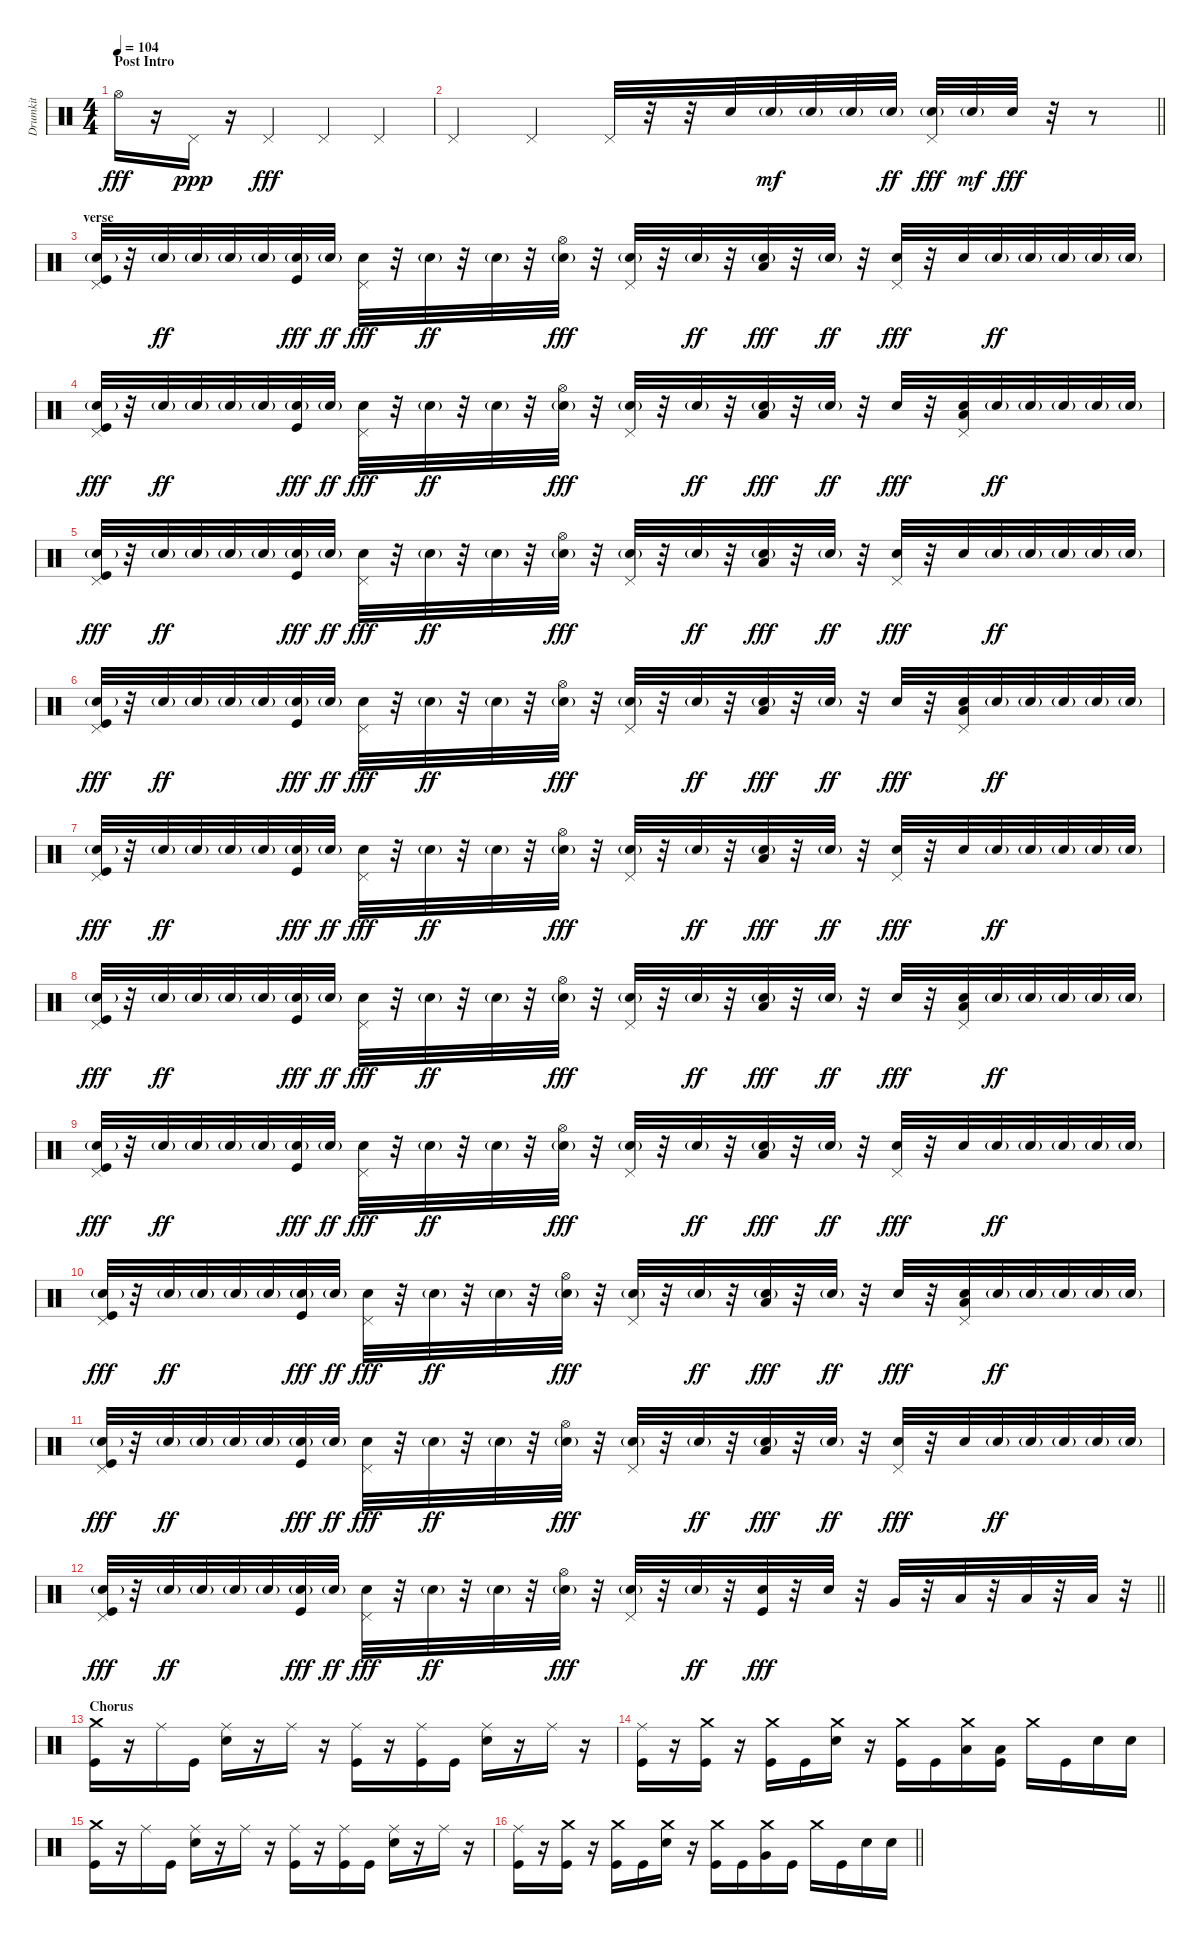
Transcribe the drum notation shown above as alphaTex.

\track ("Drumkit" "Drumkit") {instrument percussion}
\staff {score}
\articulation defaults
\ts (4 4)
\section ("" "Post Intro")
\tempo 104
\clef neutral
\ks c "Hi-Hat (open)".16{dy fff}
r.16 "Pedal Hi-Hat (hit)".16{dy ppp} r.16 "Pedal Hi-Hat (hit)".4{dy fff} "Pedal Hi-Hat (hit)".4 "Pedal Hi-Hat (hit)".4 |
\barLineRight lightlight "Pedal Hi-Hat (hit)".4 "Pedal Hi-Hat (hit)".4 "Pedal Hi-Hat (hit)".32
r.32 r.32 "Snare (hit) 2".32 "Snare (hit) 2"{g}.32{dy mf} "Snare (hit) 2"{g}.32 "Snare (hit) 2"{g}.32 "Snare (hit) 2"{g}.32{dy ff} ("Pedal Hi-Hat (hit)" "Snare (hit) 2"{g}).32{dy fff} "Snare (hit) 2"{g}.32{dy mf} "Snare (hit) 2".32{dy fff} r.32 r.8 |
\section ("" "verse")
("Pedal Hi-Hat (hit)" "Snare (hit) 2"{g} "Kick (hit)").32 r.32 "Snare (hit) 2"{g}.32{dy ff} "Snare (hit) 2"{g}.32 "Snare (hit) 2"{g}.32 "Snare (hit) 2"{g}.32 ("Snare (hit) 2"{g} "Kick (hit)").32{dy fff} "Snare (hit) 2"{g}.32{dy ff} ("Pedal Hi-Hat (hit)" "Snare (hit) 2").32{dy fff} r.32 "Snare (hit) 2"{g}.32{dy ff} r.32 "Snare (hit) 2"{g}.32 r.32 ("Hi-Hat (open)" "Snare (hit) 2"{g}).32{dy fff} r.32 ("Pedal Hi-Hat (hit)" "Snare (hit) 2"{g}).32 r.32 "Snare (hit) 2"{g}.32{dy ff} r.32 ("Low Tom (hit)" "Snare (hit) 2"{g}).32{dy fff} r.32 "Snare (hit) 2"{g}.32{dy ff} r.32 ("Pedal Hi-Hat (hit)" "Snare (hit) 2").32{dy fff} r.32 "Snare (hit) 2".32 "Snare (hit) 2"{g}.32{dy ff} "Snare (hit) 2"{g}.32 "Snare (hit) 2"{g}.32 "Snare (hit) 2"{g}.32 "Snare (hit) 2"{g}.32 |
("Pedal Hi-Hat (hit)" "Snare (hit) 2"{g} "Kick (hit)").32{dy fff} r.32 "Snare (hit) 2"{g}.32{dy ff} "Snare (hit) 2"{g}.32 "Snare (hit) 2"{g}.32 "Snare (hit) 2"{g}.32 ("Snare (hit) 2"{g} "Kick (hit)").32{dy fff} "Snare (hit) 2"{g}.32{dy ff} ("Pedal Hi-Hat (hit)" "Snare (hit) 2").32{dy fff} r.32 "Snare (hit) 2"{g}.32{dy ff} r.32 "Snare (hit) 2"{g}.32 r.32 ("Hi-Hat (open)" "Snare (hit) 2"{g}).32{dy fff} r.32 ("Pedal Hi-Hat (hit)" "Snare (hit) 2"{g}).32 r.32 "Snare (hit) 2"{g}.32{dy ff} r.32 ("Low Tom (hit)" "Snare (hit) 2"{g}).32{dy fff} r.32 "Snare (hit) 2"{g}.32{dy ff} r.32 "Snare (hit) 2".32{dy fff} r.32 ("Pedal Hi-Hat (hit)" "Low Floor Tom (hit)" "Snare (hit) 2").32 "Snare (hit) 2"{g}.32{dy ff} "Snare (hit) 2"{g}.32 "Snare (hit) 2"{g}.32 "Snare (hit) 2"{g}.32 "Snare (hit) 2"{g}.32 |
("Pedal Hi-Hat (hit)" "Snare (hit) 2"{g} "Kick (hit)").32{dy fff} r.32 "Snare (hit) 2"{g}.32{dy ff} "Snare (hit) 2"{g}.32 "Snare (hit) 2"{g}.32 "Snare (hit) 2"{g}.32 ("Snare (hit) 2"{g} "Kick (hit)").32{dy fff} "Snare (hit) 2"{g}.32{dy ff} ("Pedal Hi-Hat (hit)" "Snare (hit) 2").32{dy fff} r.32 "Snare (hit) 2"{g}.32{dy ff} r.32 "Snare (hit) 2"{g}.32 r.32 ("Hi-Hat (open)" "Snare (hit) 2"{g}).32{dy fff} r.32 ("Pedal Hi-Hat (hit)" "Snare (hit) 2"{g}).32 r.32 "Snare (hit) 2"{g}.32{dy ff} r.32 ("Low Tom (hit)" "Snare (hit) 2"{g}).32{dy fff} r.32 "Snare (hit) 2"{g}.32{dy ff} r.32 ("Pedal Hi-Hat (hit)" "Snare (hit) 2").32{dy fff} r.32 "Snare (hit) 2".32 "Snare (hit) 2"{g}.32{dy ff} "Snare (hit) 2"{g}.32 "Snare (hit) 2"{g}.32 "Snare (hit) 2"{g}.32 "Snare (hit) 2"{g}.32 |
("Pedal Hi-Hat (hit)" "Snare (hit) 2"{g} "Kick (hit)").32{dy fff} r.32 "Snare (hit) 2"{g}.32{dy ff} "Snare (hit) 2"{g}.32 "Snare (hit) 2"{g}.32 "Snare (hit) 2"{g}.32 ("Snare (hit) 2"{g} "Kick (hit)").32{dy fff} "Snare (hit) 2"{g}.32{dy ff} ("Pedal Hi-Hat (hit)" "Snare (hit) 2").32{dy fff} r.32 "Snare (hit) 2"{g}.32{dy ff} r.32 "Snare (hit) 2"{g}.32 r.32 ("Hi-Hat (open)" "Snare (hit) 2"{g}).32{dy fff} r.32 ("Pedal Hi-Hat (hit)" "Snare (hit) 2"{g}).32 r.32 "Snare (hit) 2"{g}.32{dy ff} r.32 ("Low Tom (hit)" "Snare (hit) 2"{g}).32{dy fff} r.32 "Snare (hit) 2"{g}.32{dy ff} r.32 "Snare (hit) 2".32{dy fff} r.32 ("Pedal Hi-Hat (hit)" "Low Floor Tom (hit)" "Snare (hit) 2").32 "Snare (hit) 2"{g}.32{dy ff} "Snare (hit) 2"{g}.32 "Snare (hit) 2"{g}.32 "Snare (hit) 2"{g}.32 "Snare (hit) 2"{g}.32 |
("Pedal Hi-Hat (hit)" "Snare (hit) 2"{g} "Kick (hit)").32{dy fff} r.32 "Snare (hit) 2"{g}.32{dy ff} "Snare (hit) 2"{g}.32 "Snare (hit) 2"{g}.32 "Snare (hit) 2"{g}.32 ("Snare (hit) 2"{g} "Kick (hit)").32{dy fff} "Snare (hit) 2"{g}.32{dy ff} ("Pedal Hi-Hat (hit)" "Snare (hit) 2").32{dy fff} r.32 "Snare (hit) 2"{g}.32{dy ff} r.32 "Snare (hit) 2"{g}.32 r.32 ("Hi-Hat (open)" "Snare (hit) 2"{g}).32{dy fff} r.32 ("Pedal Hi-Hat (hit)" "Snare (hit) 2"{g}).32 r.32 "Snare (hit) 2"{g}.32{dy ff} r.32 ("Low Tom (hit)" "Snare (hit) 2"{g}).32{dy fff} r.32 "Snare (hit) 2"{g}.32{dy ff} r.32 ("Pedal Hi-Hat (hit)" "Snare (hit) 2").32{dy fff} r.32 "Snare (hit) 2".32 "Snare (hit) 2"{g}.32{dy ff} "Snare (hit) 2"{g}.32 "Snare (hit) 2"{g}.32 "Snare (hit) 2"{g}.32 "Snare (hit) 2"{g}.32 |
("Pedal Hi-Hat (hit)" "Snare (hit) 2"{g} "Kick (hit)").32{dy fff} r.32 "Snare (hit) 2"{g}.32{dy ff} "Snare (hit) 2"{g}.32 "Snare (hit) 2"{g}.32 "Snare (hit) 2"{g}.32 ("Snare (hit) 2"{g} "Kick (hit)").32{dy fff} "Snare (hit) 2"{g}.32{dy ff} ("Pedal Hi-Hat (hit)" "Snare (hit) 2").32{dy fff} r.32 "Snare (hit) 2"{g}.32{dy ff} r.32 "Snare (hit) 2"{g}.32 r.32 ("Hi-Hat (open)" "Snare (hit) 2"{g}).32{dy fff} r.32 ("Pedal Hi-Hat (hit)" "Snare (hit) 2"{g}).32 r.32 "Snare (hit) 2"{g}.32{dy ff} r.32 ("Low Tom (hit)" "Snare (hit) 2"{g}).32{dy fff} r.32 "Snare (hit) 2"{g}.32{dy ff} r.32 "Snare (hit) 2".32{dy fff} r.32 ("Pedal Hi-Hat (hit)" "Low Floor Tom (hit)" "Snare (hit) 2").32 "Snare (hit) 2"{g}.32{dy ff} "Snare (hit) 2"{g}.32 "Snare (hit) 2"{g}.32 "Snare (hit) 2"{g}.32 "Snare (hit) 2"{g}.32 |
("Pedal Hi-Hat (hit)" "Snare (hit) 2"{g} "Kick (hit)").32{dy fff} r.32 "Snare (hit) 2"{g}.32{dy ff} "Snare (hit) 2"{g}.32 "Snare (hit) 2"{g}.32 "Snare (hit) 2"{g}.32 ("Snare (hit) 2"{g} "Kick (hit)").32{dy fff} "Snare (hit) 2"{g}.32{dy ff} ("Pedal Hi-Hat (hit)" "Snare (hit) 2").32{dy fff} r.32 "Snare (hit) 2"{g}.32{dy ff} r.32 "Snare (hit) 2"{g}.32 r.32 ("Hi-Hat (open)" "Snare (hit) 2"{g}).32{dy fff} r.32 ("Pedal Hi-Hat (hit)" "Snare (hit) 2"{g}).32 r.32 "Snare (hit) 2"{g}.32{dy ff} r.32 ("Low Tom (hit)" "Snare (hit) 2"{g}).32{dy fff} r.32 "Snare (hit) 2"{g}.32{dy ff} r.32 ("Pedal Hi-Hat (hit)" "Snare (hit) 2").32{dy fff} r.32 "Snare (hit) 2".32 "Snare (hit) 2"{g}.32{dy ff} "Snare (hit) 2"{g}.32 "Snare (hit) 2"{g}.32 "Snare (hit) 2"{g}.32 "Snare (hit) 2"{g}.32 |
("Pedal Hi-Hat (hit)" "Snare (hit) 2"{g} "Kick (hit)").32{dy fff} r.32 "Snare (hit) 2"{g}.32{dy ff} "Snare (hit) 2"{g}.32 "Snare (hit) 2"{g}.32 "Snare (hit) 2"{g}.32 ("Snare (hit) 2"{g} "Kick (hit)").32{dy fff} "Snare (hit) 2"{g}.32{dy ff} ("Pedal Hi-Hat (hit)" "Snare (hit) 2").32{dy fff} r.32 "Snare (hit) 2"{g}.32{dy ff} r.32 "Snare (hit) 2"{g}.32 r.32 ("Hi-Hat (open)" "Snare (hit) 2"{g}).32{dy fff} r.32 ("Pedal Hi-Hat (hit)" "Snare (hit) 2"{g}).32 r.32 "Snare (hit) 2"{g}.32{dy ff} r.32 ("Low Tom (hit)" "Snare (hit) 2"{g}).32{dy fff} r.32 "Snare (hit) 2"{g}.32{dy ff} r.32 "Snare (hit) 2".32{dy fff} r.32 ("Pedal Hi-Hat (hit)" "Low Floor Tom (hit)" "Snare (hit) 2").32 "Snare (hit) 2"{g}.32{dy ff} "Snare (hit) 2"{g}.32 "Snare (hit) 2"{g}.32 "Snare (hit) 2"{g}.32 "Snare (hit) 2"{g}.32 |
("Pedal Hi-Hat (hit)" "Snare (hit) 2"{g} "Kick (hit)").32{dy fff} r.32 "Snare (hit) 2"{g}.32{dy ff} "Snare (hit) 2"{g}.32 "Snare (hit) 2"{g}.32 "Snare (hit) 2"{g}.32 ("Snare (hit) 2"{g} "Kick (hit)").32{dy fff} "Snare (hit) 2"{g}.32{dy ff} ("Pedal Hi-Hat (hit)" "Snare (hit) 2").32{dy fff} r.32 "Snare (hit) 2"{g}.32{dy ff} r.32 "Snare (hit) 2"{g}.32 r.32 ("Hi-Hat (open)" "Snare (hit) 2"{g}).32{dy fff} r.32 ("Pedal Hi-Hat (hit)" "Snare (hit) 2"{g}).32 r.32 "Snare (hit) 2"{g}.32{dy ff} r.32 ("Low Tom (hit)" "Snare (hit) 2"{g}).32{dy fff} r.32 "Snare (hit) 2"{g}.32{dy ff} r.32 ("Pedal Hi-Hat (hit)" "Snare (hit) 2").32{dy fff} r.32 "Snare (hit) 2".32 "Snare (hit) 2"{g}.32{dy ff} "Snare (hit) 2"{g}.32 "Snare (hit) 2"{g}.32 "Snare (hit) 2"{g}.32 "Snare (hit) 2"{g}.32 |
\barLineRight lightlight
("Pedal Hi-Hat (hit)" "Snare (hit) 2"{g} "Kick (hit)").32{dy fff} r.32 "Snare (hit) 2"{g}.32{dy ff} "Snare (hit) 2"{g}.32 "Snare (hit) 2"{g}.32 "Snare (hit) 2"{g}.32 ("Snare (hit) 2"{g} "Kick (hit)").32{dy fff} "Snare (hit) 2"{g}.32{dy ff} ("Pedal Hi-Hat (hit)" "Snare (hit) 2").32{dy fff} r.32 "Snare (hit) 2"{g}.32{dy ff} r.32 "Snare (hit) 2"{g}.32 r.32 ("Hi-Hat (open)" "Snare (hit) 2"{g}).32{dy fff} r.32 ("Pedal Hi-Hat (hit)" "Snare (hit) 2"{g}).32 r.32 "Snare (hit) 2"{g}.32{dy ff} r.32 ("Snare (hit) 2" "Kick (hit)").32{dy fff} r.32 "Snare (hit) 2".32 r.32 "Very Low Tom (hit)".32 r.32 "Low Tom (hit)".32 r.32 "Low Floor Tom (hit)".32 r.32 "Low Floor Tom (hit)".32 r.32 |
\section ("" "Chorus")
("Crash medium (hit)" "Kick (hit)").16 r.16 "Ride (middle)".16 "Kick (hit)".16 ("Ride (middle)" "Snare (hit) 2").16 r.16 "Ride (middle)".16 r.16 ("Ride (middle)" "Kick (hit)").16 r.16 ("Ride (middle)" "Kick (hit)").16 "Kick (hit)".16 ("Ride (middle)" "Snare (hit) 2").16 r.16 "Ride (middle)".16 r.16 |
("Ride (middle)" "Kick (hit)").16 r.16 ("Crash medium (hit)" "Kick (hit)").16 r.16 ("Crash medium (hit)" "Kick (hit)").16 "Kick (hit)".16 ("Crash medium (hit)" "Snare (hit) 2").16 r.16 ("Crash medium (hit)" "Kick (hit)").16 "Kick (hit)".16 ("Crash medium (hit)" "Low Tom (hit)").16 ("Low Tom (hit)" "Kick (hit)").16 "Crash medium (hit)".16 "Kick (hit)".16 "Snare (hit) 2".16 "Snare (hit) 2".16 |
("Crash medium (hit)" "Kick (hit)").16 r.16 "Ride (middle)".16 "Kick (hit)".16 ("Ride (middle)" "Snare (hit) 2").16 r.16 "Ride (middle)".16 r.16 ("Ride (middle)" "Kick (hit)").16 r.16 ("Ride (middle)" "Kick (hit)").16 "Kick (hit)".16 ("Ride (middle)" "Snare (hit) 2").16 r.16 "Ride (middle)".16 r.16 |
\barLineRight lightlight
("Ride (middle)" "Kick (hit)").16 r.16 ("Crash medium (hit)" "Kick (hit)").16 r.16 ("Crash medium (hit)" "Kick (hit)").16 "Kick (hit)".16 ("Crash medium (hit)" "Snare (hit) 2").16 r.16 ("Crash medium (hit)" "Kick (hit)").16 "Kick (hit)".16 ("Crash medium (hit)" "Very Low Tom (hit)").16 "Kick (hit)".16 "Crash medium (hit)".16 "Kick (hit)".16 "Snare (hit) 2".16 "Snare (hit) 2".16
